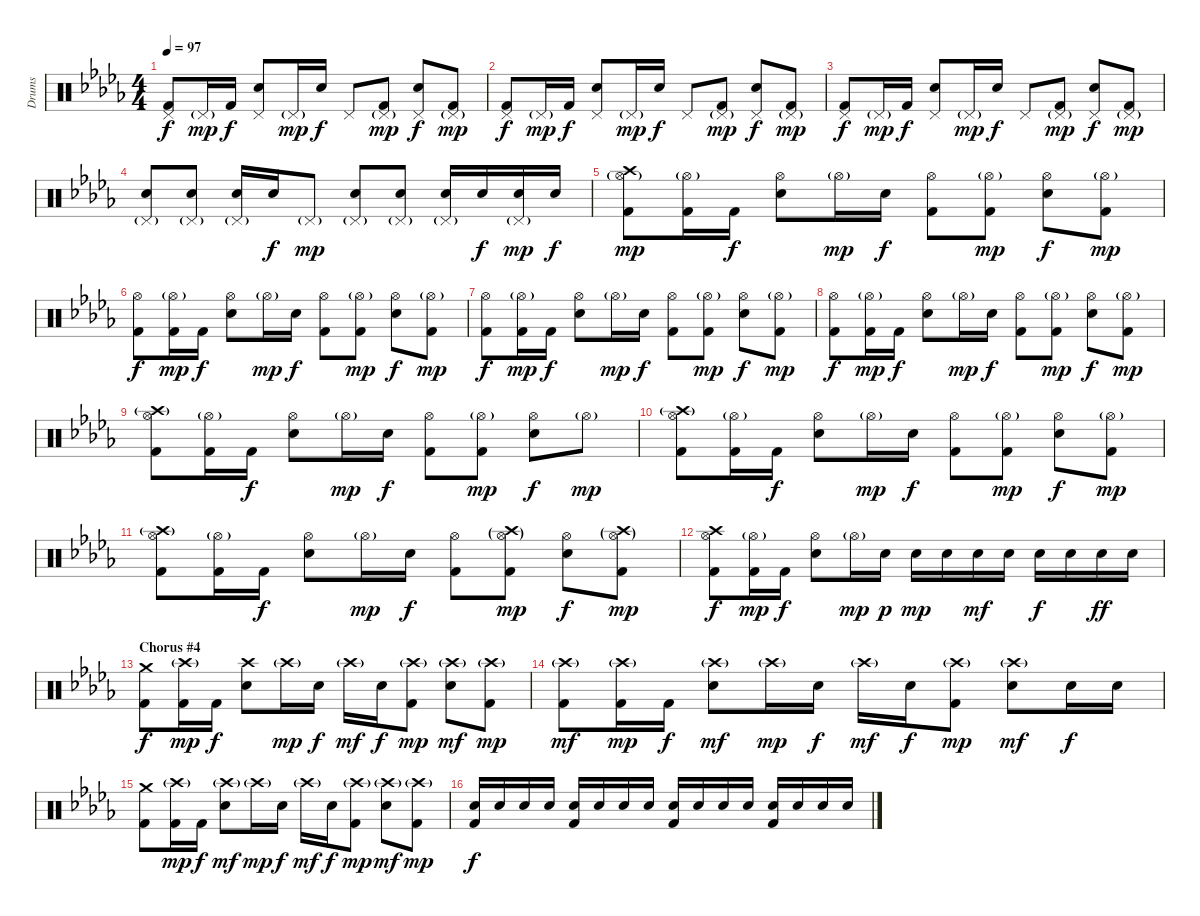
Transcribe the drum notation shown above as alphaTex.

\track ("Drums" "Drums") {instrument percussion}
\staff {score}
\articulation defaults
\ts (4 4)
\tempo 97
\clef neutral
\ks db
("Pedal Hi-Hat (hit)" "Kick (hit) 2").8{dy f} "Pedal Hi-Hat (hit)"{g}.16{dy mp} "Kick (hit) 2".16{dy f} ("Pedal Hi-Hat (hit)" "Electric Snare (hit)").8 "Pedal Hi-Hat (hit)"{g}.16{dy mp} "Electric Snare (hit)".16{dy f} "Pedal Hi-Hat (hit)".8 ("Pedal Hi-Hat (hit)"{g} "Kick (hit) 2").8{dy mp} ("Pedal Hi-Hat (hit)" "Electric Snare (hit)").8{dy f} ("Pedal Hi-Hat (hit)"{g} "Kick (hit) 2").8{dy mp} |
("Pedal Hi-Hat (hit)" "Kick (hit) 2").8{dy f} "Pedal Hi-Hat (hit)"{g}.16{dy mp} "Kick (hit) 2".16{dy f} ("Pedal Hi-Hat (hit)" "Electric Snare (hit)").8 "Pedal Hi-Hat (hit)"{g}.16{dy mp} "Electric Snare (hit)".16{dy f} "Pedal Hi-Hat (hit)".8 ("Pedal Hi-Hat (hit)"{g} "Kick (hit) 2").8{dy mp} ("Pedal Hi-Hat (hit)" "Electric Snare (hit)").8{dy f} ("Pedal Hi-Hat (hit)"{g} "Kick (hit) 2").8{dy mp} |
("Pedal Hi-Hat (hit)" "Kick (hit) 2").8{dy f} "Pedal Hi-Hat (hit)"{g}.16{dy mp} "Kick (hit) 2".16{dy f} ("Pedal Hi-Hat (hit)" "Electric Snare (hit)").8 "Pedal Hi-Hat (hit)"{g}.16{dy mp} "Electric Snare (hit)".16{dy f} "Pedal Hi-Hat (hit)".8 ("Pedal Hi-Hat (hit)"{g} "Kick (hit) 2").8{dy mp} ("Pedal Hi-Hat (hit)" "Electric Snare (hit)").8{dy f} ("Pedal Hi-Hat (hit)"{g} "Kick (hit) 2").8{dy mp} |
("Electric Snare (hit)" "Pedal Hi-Hat (hit)"{g}).8{volume 13} ("Electric Snare (hit)" "Pedal Hi-Hat (hit)"{g}).8 ("Electric Snare (hit)" "Pedal Hi-Hat (hit)"{g}).16 "Electric Snare (hit)".16{dy f} "Pedal Hi-Hat (hit)"{g}.8{dy mp} ("Electric Snare (hit)" "Pedal Hi-Hat (hit)"{g}).8 ("Electric Snare (hit)" "Pedal Hi-Hat (hit)"{g}).8 ("Electric Snare (hit)" "Pedal Hi-Hat (hit)"{g}).16 "Electric Snare (hit)".16{dy f} ("Electric Snare (hit)" "Pedal Hi-Hat (hit)"{g}).16{dy mp} "Electric Snare (hit)".16{dy f} |
("Hi-Hat (open)"{g} "Crash high (hit)" "Kick (hit) 2").8{dy mp} ("Hi-Hat (open)"{g} "Kick (hit) 2").16 "Kick (hit) 2".16{dy f} ("Hi-Hat (open)" "Electric Snare (hit)").8 "Hi-Hat (open)"{g}.16{dy mp} "Electric Snare (hit)".16{dy f} ("Hi-Hat (open)" "Kick (hit) 2").8 ("Hi-Hat (open)"{g} "Kick (hit) 2").8{dy mp} ("Hi-Hat (open)" "Electric Snare (hit)").8{dy f} ("Hi-Hat (open)"{g} "Kick (hit) 2").8{dy mp} |
("Hi-Hat (open)" "Kick (hit) 2").8{dy f} ("Hi-Hat (open)"{g} "Kick (hit) 2").16{dy mp} "Kick (hit) 2".16{dy f} ("Hi-Hat (open)" "Electric Snare (hit)").8 "Hi-Hat (open)"{g}.16{dy mp} "Electric Snare (hit)".16{dy f} ("Hi-Hat (open)" "Kick (hit) 2").8 ("Hi-Hat (open)"{g} "Kick (hit) 2").8{dy mp} ("Hi-Hat (open)" "Electric Snare (hit)").8{dy f} ("Hi-Hat (open)"{g} "Kick (hit) 2").8{dy mp} |
("Hi-Hat (open)" "Kick (hit) 2").8{dy f} ("Hi-Hat (open)"{g} "Kick (hit) 2").16{dy mp} "Kick (hit) 2".16{dy f} ("Hi-Hat (open)" "Electric Snare (hit)").8 "Hi-Hat (open)"{g}.16{dy mp} "Electric Snare (hit)".16{dy f} ("Hi-Hat (open)" "Kick (hit) 2").8 ("Hi-Hat (open)"{g} "Kick (hit) 2").8{dy mp} ("Hi-Hat (open)" "Electric Snare (hit)").8{dy f} ("Hi-Hat (open)"{g} "Kick (hit) 2").8{dy mp} |
("Hi-Hat (open)" "Kick (hit) 2").8{dy f} ("Hi-Hat (open)"{g} "Kick (hit) 2").16{dy mp} "Kick (hit) 2".16{dy f} ("Hi-Hat (open)" "Electric Snare (hit)").8 "Hi-Hat (open)"{g}.16{dy mp} "Electric Snare (hit)".16{dy f} ("Hi-Hat (open)" "Kick (hit) 2").8 ("Hi-Hat (open)"{g} "Kick (hit) 2").8{dy mp} ("Hi-Hat (open)" "Electric Snare (hit)").8{dy f} ("Hi-Hat (open)"{g} "Kick (hit) 2").8{dy mp} |
("Hi-Hat (open)" "Crash high (hit)"{g} "Kick (hit) 2").8 ("Hi-Hat (open)"{g} "Kick (hit) 2").16 "Kick (hit) 2".16{dy f} ("Hi-Hat (open)" "Electric Snare (hit)").8 "Hi-Hat (open)"{g}.16{dy mp} "Electric Snare (hit)".16{dy f} ("Hi-Hat (open)" "Kick (hit) 2").8 ("Hi-Hat (open)"{g} "Kick (hit) 2").8{dy mp} ("Hi-Hat (open)" "Electric Snare (hit)").8{dy f} "Hi-Hat (open)"{g}.8{dy mp} |
("Hi-Hat (open)" "Crash high (hit)"{g} "Kick (hit) 2").8 ("Hi-Hat (open)"{g} "Kick (hit) 2").16 "Kick (hit) 2".16{dy f} ("Hi-Hat (open)" "Electric Snare (hit)").8 "Hi-Hat (open)"{g}.16{dy mp} "Electric Snare (hit)".16{dy f} ("Hi-Hat (open)" "Kick (hit) 2").8 ("Hi-Hat (open)"{g} "Kick (hit) 2").8{dy mp} ("Hi-Hat (open)" "Electric Snare (hit)").8{dy f} ("Hi-Hat (open)"{g} "Kick (hit) 2").8{dy mp} |
("Hi-Hat (open)" "Crash high (hit)"{g} "Kick (hit) 2").8 ("Hi-Hat (open)"{g} "Kick (hit) 2").16 "Kick (hit) 2".16{dy f} ("Hi-Hat (open)" "Electric Snare (hit)").8 "Hi-Hat (open)"{g}.16{dy mp} "Electric Snare (hit)".16{dy f} ("Hi-Hat (open)" "Kick (hit) 2").8 ("Hi-Hat (open)"{g} "Crash high (hit)"{g} "Kick (hit) 2").8{dy mp} ("Hi-Hat (open)" "Electric Snare (hit)").8{dy f} ("Hi-Hat (open)"{g} "Crash high (hit)"{g} "Kick (hit) 2").8{dy mp} |
("Hi-Hat (open)" "Crash high (hit)" "Kick (hit) 2").8{dy f} ("Hi-Hat (open)"{g} "Kick (hit) 2").16{dy mp} "Kick (hit) 2".16{dy f} ("Hi-Hat (open)" "Electric Snare (hit)").8 "Hi-Hat (open)"{g}.16{dy mp} "Electric Snare (hit)".16{dy p} "Electric Snare (hit)".16{dy mp} "Electric Snare (hit)".16 "Electric Snare (hit)".16{dy mf} "Electric Snare (hit)".16 "Electric Snare (hit)".16{dy f} "Electric Snare (hit)".16 "Electric Snare (hit)".16{dy ff} "Electric Snare (hit)".16 |
\section ("" "Chorus #4")
("Crash medium (hit)" "Kick (hit) 2").8{dy f} ("Crash high (hit)"{g} "Kick (hit) 2").16{dy mp} "Kick (hit) 2".16{dy f} ("Crash high (hit)" "Electric Snare (hit)").8 "Crash high (hit)"{g}.16{dy mp} "Electric Snare (hit)".16{dy f} "Crash high (hit)"{g}.16{dy mf} "Electric Snare (hit)".16{dy f} ("Crash high (hit)"{g} "Kick (hit) 2").8{dy mp} ("Crash high (hit)"{g} "Electric Snare (hit)").8{dy mf} ("Crash high (hit)"{g} "Kick (hit) 2").8{dy mp} |
("Crash high (hit)"{g} "Kick (hit) 2").8{dy mf} ("Crash high (hit)"{g} "Kick (hit) 2").16{dy mp} "Kick (hit) 2".16{dy f} ("Crash high (hit)"{g} "Electric Snare (hit)").8{dy mf} "Crash high (hit)"{g}.16{dy mp} "Electric Snare (hit)".16{dy f} "Crash high (hit)"{g}.16{dy mf} "Electric Snare (hit)".16{dy f} ("Crash high (hit)"{g} "Kick (hit) 2").8{dy mp} ("Crash high (hit)"{g} "Electric Snare (hit)").8{dy mf} "Electric Snare (hit)".16{dy f} "Electric Snare (hit)".16 |
("Crash medium (hit)" "Kick (hit) 2").8 ("Crash high (hit)"{g} "Kick (hit) 2").16{dy mp} "Kick (hit) 2".16{dy f} ("Crash high (hit)"{g} "Electric Snare (hit)").8{dy mf} "Crash high (hit)"{g}.16{dy mp} "Electric Snare (hit)".16{dy f} "Crash high (hit)"{g}.16{dy mf} "Electric Snare (hit)".16{dy f} ("Crash high (hit)"{g} "Kick (hit) 2").8{dy mp} ("Crash high (hit)"{g} "Electric Snare (hit)").8{dy mf} ("Crash high (hit)"{g} "Kick (hit) 2").8{dy mp} |
("Electric Snare (hit)" "Kick (hit) 2").16{dy f} "Electric Snare (hit)".16 "Electric Snare (hit)".16 "Electric Snare (hit)".16 ("Electric Snare (hit)" "Kick (hit) 2").16 "Electric Snare (hit)".16 "Electric Snare (hit)".16 "Electric Snare (hit)".16 ("Electric Snare (hit)" "Kick (hit) 2").16 "Electric Snare (hit)".16 "Electric Snare (hit)".16 "Electric Snare (hit)".16 ("Electric Snare (hit)" "Kick (hit) 2").16 "Electric Snare (hit)".16 "Electric Snare (hit)".16 "Electric Snare (hit)".16
